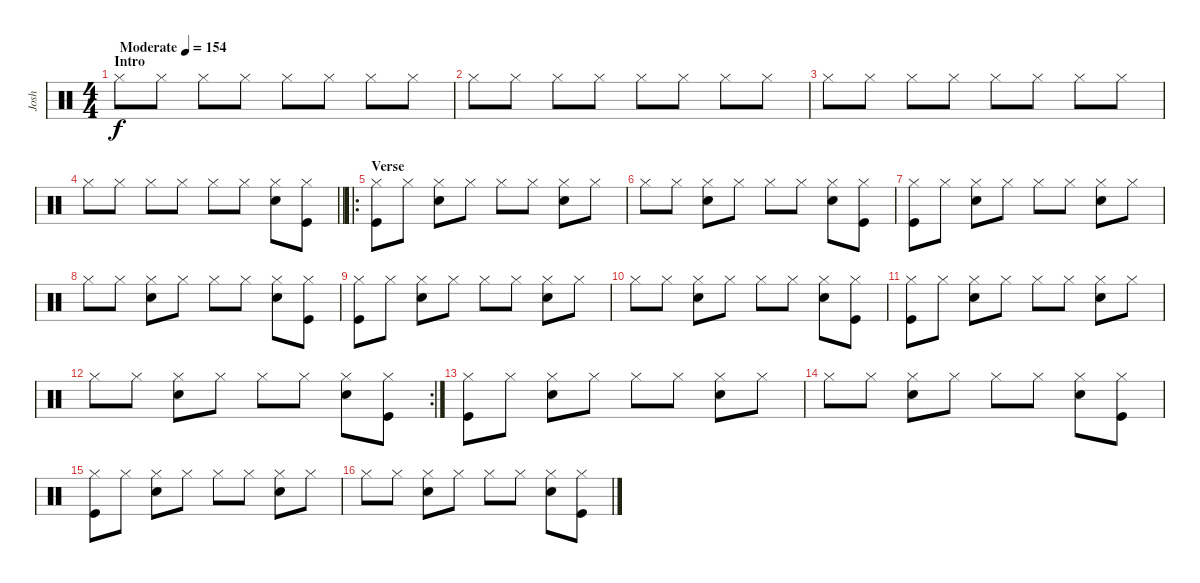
\track ("Josh" "Josh") {instrument percussion}
\staff {score}
\articulation defaults
\ts (4 4)
\section ("" "Intro")
\tempo (154 "Moderate")
\clef neutral
\ks c "Hi-Hat (closed)".8{dy f} "Hi-Hat (closed)".8 "Hi-Hat (closed)".8 "Hi-Hat (closed)".8 "Hi-Hat (closed)".8 "Hi-Hat (closed)".8 "Hi-Hat (closed)".8 "Hi-Hat (closed)".8
|
"Hi-Hat (closed)".8 "Hi-Hat (closed)".8 "Hi-Hat (closed)".8 "Hi-Hat (closed)".8 "Hi-Hat (closed)".8 "Hi-Hat (closed)".8 "Hi-Hat (closed)".8 "Hi-Hat (closed)".8 |
"Hi-Hat (closed)".8 "Hi-Hat (closed)".8 "Hi-Hat (closed)".8 "Hi-Hat (closed)".8 "Hi-Hat (closed)".8 "Hi-Hat (closed)".8 "Hi-Hat (closed)".8 "Hi-Hat (closed)".8 |
\barLineRight lightlight "Hi-Hat (closed)".8 "Hi-Hat (closed)".8 "Hi-Hat (closed)".8 "Hi-Hat (closed)".8 "Hi-Hat (closed)".8 "Hi-Hat (closed)".8
("Hi-Hat (closed)" "Snare (hit) 2").8 ("Hi-Hat (closed)" "Kick (hit)").8 |
\ro
\section ("" "Verse")
("Hi-Hat (closed)" "Kick (hit)").8 "Hi-Hat (closed)".8 ("Hi-Hat (closed)" "Snare (hit) 2").8 "Hi-Hat (closed)".8 "Hi-Hat (closed)".8 "Hi-Hat (closed)".8 ("Hi-Hat (closed)" "Snare (hit) 2").8 "Hi-Hat (closed)".8 |
"Hi-Hat (closed)".8 "Hi-Hat (closed)".8 ("Hi-Hat (closed)" "Snare (hit) 2").8 "Hi-Hat (closed)".8 "Hi-Hat (closed)".8 "Hi-Hat (closed)".8 ("Hi-Hat (closed)" "Snare (hit) 2").8 ("Hi-Hat (closed)" "Kick (hit)").8 |
("Hi-Hat (closed)" "Kick (hit)").8 "Hi-Hat (closed)".8 ("Hi-Hat (closed)" "Snare (hit) 2").8 "Hi-Hat (closed)".8 "Hi-Hat (closed)".8 "Hi-Hat (closed)".8 ("Hi-Hat (closed)" "Snare (hit) 2").8 "Hi-Hat (closed)".8 |
"Hi-Hat (closed)".8 "Hi-Hat (closed)".8 ("Hi-Hat (closed)" "Snare (hit) 2").8 "Hi-Hat (closed)".8 "Hi-Hat (closed)".8 "Hi-Hat (closed)".8 ("Hi-Hat (closed)" "Snare (hit) 2").8 ("Hi-Hat (closed)" "Kick (hit)").8 |
("Hi-Hat (closed)" "Kick (hit)").8 "Hi-Hat (closed)".8 ("Hi-Hat (closed)" "Snare (hit) 2").8 "Hi-Hat (closed)".8 "Hi-Hat (closed)".8 "Hi-Hat (closed)".8 ("Hi-Hat (closed)" "Snare (hit) 2").8 "Hi-Hat (closed)".8 |
"Hi-Hat (closed)".8 "Hi-Hat (closed)".8 ("Hi-Hat (closed)" "Snare (hit) 2").8 "Hi-Hat (closed)".8 "Hi-Hat (closed)".8 "Hi-Hat (closed)".8 ("Hi-Hat (closed)" "Snare (hit) 2").8 ("Hi-Hat (closed)" "Kick (hit)").8 |
("Hi-Hat (closed)" "Kick (hit)").8 "Hi-Hat (closed)".8 ("Hi-Hat (closed)" "Snare (hit) 2").8 "Hi-Hat (closed)".8 "Hi-Hat (closed)".8 "Hi-Hat (closed)".8 ("Hi-Hat (closed)" "Snare (hit) 2").8 "Hi-Hat (closed)".8 |
\rc 2 "Hi-Hat (closed)".8 "Hi-Hat (closed)".8
("Hi-Hat (closed)" "Snare (hit) 2").8 "Hi-Hat (closed)".8 "Hi-Hat (closed)".8 "Hi-Hat (closed)".8 ("Hi-Hat (closed)" "Snare (hit) 2").8 ("Hi-Hat (closed)" "Kick (hit)").8 |
("Hi-Hat (closed)" "Kick (hit)").8 "Hi-Hat (closed)".8 ("Hi-Hat (closed)" "Snare (hit) 2").8 "Hi-Hat (closed)".8 "Hi-Hat (closed)".8 "Hi-Hat (closed)".8 ("Hi-Hat (closed)" "Snare (hit) 2").8 "Hi-Hat (closed)".8 |
"Hi-Hat (closed)".8 "Hi-Hat (closed)".8 ("Hi-Hat (closed)" "Snare (hit) 2").8 "Hi-Hat (closed)".8 "Hi-Hat (closed)".8 "Hi-Hat (closed)".8 ("Hi-Hat (closed)" "Snare (hit) 2").8 ("Hi-Hat (closed)" "Kick (hit)").8 |
("Hi-Hat (closed)" "Kick (hit)").8 "Hi-Hat (closed)".8 ("Hi-Hat (closed)" "Snare (hit) 2").8 "Hi-Hat (closed)".8 "Hi-Hat (closed)".8 "Hi-Hat (closed)".8 ("Hi-Hat (closed)" "Snare (hit) 2").8 "Hi-Hat (closed)".8 |
"Hi-Hat (closed)".8 "Hi-Hat (closed)".8 ("Hi-Hat (closed)" "Snare (hit) 2").8 "Hi-Hat (closed)".8 "Hi-Hat (closed)".8 "Hi-Hat (closed)".8 ("Hi-Hat (closed)" "Snare (hit) 2").8 ("Hi-Hat (closed)" "Kick (hit)").8
